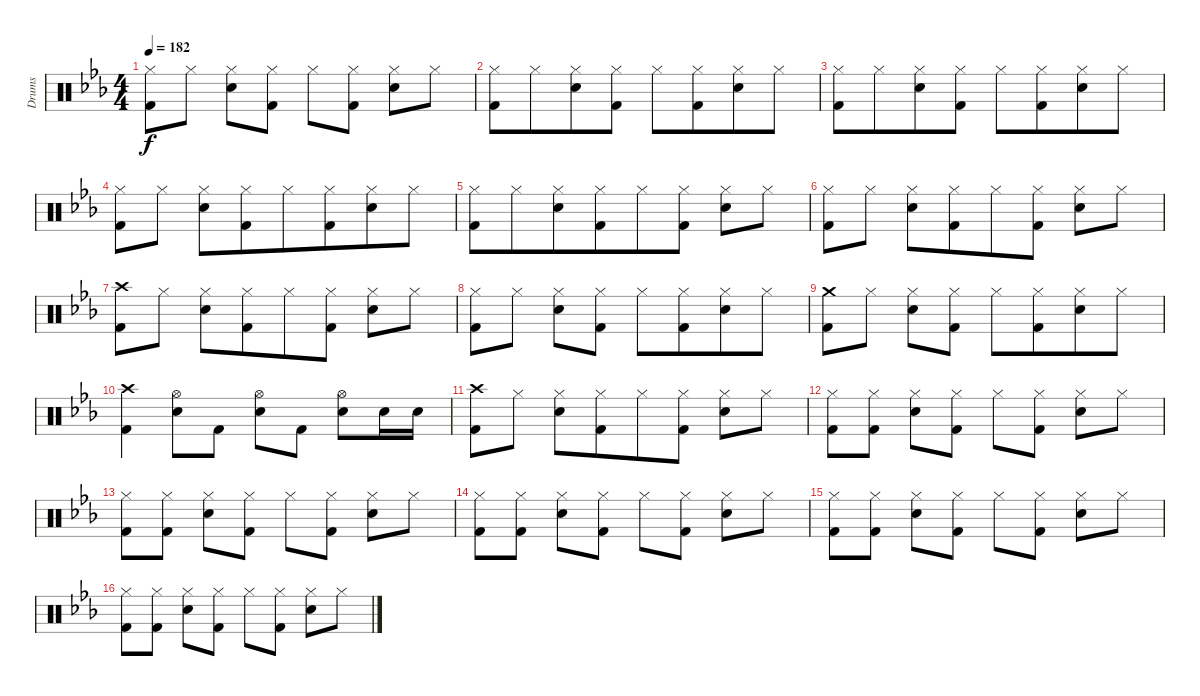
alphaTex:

\track ("Drums" "Drums") {instrument percussion}
\staff {score}
\articulation defaults
\ts (4 4)
\tempo 182
\clef neutral
\ks eb
("Hi-Hat (closed)" "Kick (hit) 2").8{dy f} "Hi-Hat (closed)".8 ("Hi-Hat (closed)" "Snare (hit) 2").8{beam merge} ("Hi-Hat (closed)" "Kick (hit) 2").8 "Hi-Hat (closed)".8 ("Hi-Hat (closed)" "Kick (hit) 2").8 ("Hi-Hat (closed)" "Snare (hit) 2").8 "Hi-Hat (closed)".8 |
("Hi-Hat (closed)" "Kick (hit) 2").8 "Hi-Hat (closed)".8{beam merge} ("Hi-Hat (closed)" "Snare (hit) 2").8 ("Hi-Hat (closed)" "Kick (hit) 2").8 "Hi-Hat (closed)".8{beam merge} ("Hi-Hat (closed)" "Kick (hit) 2").8{beam merge} ("Hi-Hat (closed)" "Snare (hit) 2").8 "Hi-Hat (closed)".8 |
("Hi-Hat (closed)" "Kick (hit) 2").8 "Hi-Hat (closed)".8{beam merge} ("Hi-Hat (closed)" "Snare (hit) 2").8 ("Hi-Hat (closed)" "Kick (hit) 2").8 "Hi-Hat (closed)".8 ("Hi-Hat (closed)" "Kick (hit) 2").8{beam merge} ("Hi-Hat (closed)" "Snare (hit) 2").8 "Hi-Hat (closed)".8 |
("Hi-Hat (closed)" "Kick (hit) 2").8 "Hi-Hat (closed)".8 ("Hi-Hat (closed)" "Snare (hit) 2").8 ("Hi-Hat (closed)" "Kick (hit) 2").8{beam merge} "Hi-Hat (closed)".8 ("Hi-Hat (closed)" "Kick (hit) 2").8{beam merge} ("Hi-Hat (closed)" "Snare (hit) 2").8 "Hi-Hat (closed)".8 |
("Hi-Hat (closed)" "Kick (hit) 2").8{beam merge} "Hi-Hat (closed)".8{beam merge} ("Hi-Hat (closed)" "Snare (hit) 2").8{beam merge} ("Hi-Hat (closed)" "Kick (hit) 2").8{beam merge} "Hi-Hat (closed)".8 ("Hi-Hat (closed)" "Kick (hit) 2").8 ("Hi-Hat (closed)" "Snare (hit) 2").8{beam merge} "Hi-Hat (closed)".8 |
("Hi-Hat (closed)" "Kick (hit) 2").8 "Hi-Hat (closed)".8 ("Hi-Hat (closed)" "Snare (hit) 2").8{beam merge} ("Hi-Hat (closed)" "Kick (hit) 2").8{beam merge} "Hi-Hat (closed)".8 ("Hi-Hat (closed)" "Kick (hit) 2").8 ("Hi-Hat (closed)" "Snare (hit) 2").8 "Hi-Hat (closed)".8 |
("Crash high (hit)" "Kick (hit) 2").8 "Hi-Hat (closed)".8 ("Hi-Hat (closed)" "Snare (hit) 2").8{beam merge} ("Hi-Hat (closed)" "Kick (hit) 2").8{beam merge} "Hi-Hat (closed)".8 ("Hi-Hat (closed)" "Kick (hit) 2").8 ("Hi-Hat (closed)" "Snare (hit) 2").8 "Hi-Hat (closed)".8 |
("Hi-Hat (closed)" "Kick (hit) 2").8 "Hi-Hat (closed)".8 ("Hi-Hat (closed)" "Snare (hit) 2").8{beam merge} ("Hi-Hat (closed)" "Kick (hit) 2").8 "Hi-Hat (closed)".8 ("Hi-Hat (closed)" "Kick (hit) 2").8{beam merge} ("Hi-Hat (closed)" "Snare (hit) 2").8 "Hi-Hat (closed)".8 |
("Crash medium (hit)" "Kick (hit) 2").8 "Hi-Hat (closed)".8 ("Hi-Hat (closed)" "Snare (hit) 2").8 ("Hi-Hat (closed)" "Kick (hit) 2").8 "Hi-Hat (closed)".8{beam merge} ("Hi-Hat (closed)" "Kick (hit) 2").8{beam merge} ("Hi-Hat (closed)" "Snare (hit) 2").8 "Hi-Hat (closed)".8 |
("Crash high (hit)" "Kick (hit) 2").4{beam merge} ("Hi-Hat (open)" "Snare (hit) 2").8{beam merge} "Kick (hit) 2".8 ("Hi-Hat (open)" "Snare (hit) 2").8 "Kick (hit) 2".8 ("Hi-Hat (open)" "Snare (hit) 2").8{beam merge} "Snare (hit) 2".16{beam merge} "Snare (hit) 2".16 |
("Crash high (hit)" "Kick (hit) 2").8{beam merge} "Hi-Hat (closed)".8 ("Hi-Hat (closed)" "Snare (hit) 2").8{beam merge} ("Hi-Hat (closed)" "Kick (hit) 2").8{beam merge} "Hi-Hat (closed)".8 ("Hi-Hat (closed)" "Kick (hit) 2").8 ("Hi-Hat (closed)" "Snare (hit) 2").8{beam merge} "Hi-Hat (closed)".8 |
("Hi-Hat (closed)" "Kick (hit) 2").8 ("Hi-Hat (closed)" "Kick (hit) 2").8 ("Hi-Hat (closed)" "Snare (hit) 2").8 ("Hi-Hat (closed)" "Kick (hit) 2").8 "Hi-Hat (closed)".8 ("Hi-Hat (closed)" "Kick (hit) 2").8 ("Hi-Hat (closed)" "Snare (hit) 2").8 "Hi-Hat (closed)".8 |
("Hi-Hat (closed)" "Kick (hit) 2").8 ("Hi-Hat (closed)" "Kick (hit) 2").8 ("Hi-Hat (closed)" "Snare (hit) 2").8 ("Hi-Hat (closed)" "Kick (hit) 2").8 "Hi-Hat (closed)".8 ("Hi-Hat (closed)" "Kick (hit) 2").8 ("Hi-Hat (closed)" "Snare (hit) 2").8 "Hi-Hat (closed)".8 |
("Hi-Hat (closed)" "Kick (hit) 2").8 ("Hi-Hat (closed)" "Kick (hit) 2").8 ("Hi-Hat (closed)" "Snare (hit) 2").8 ("Hi-Hat (closed)" "Kick (hit) 2").8 "Hi-Hat (closed)".8 ("Hi-Hat (closed)" "Kick (hit) 2").8 ("Hi-Hat (closed)" "Snare (hit) 2").8 "Hi-Hat (closed)".8 |
("Hi-Hat (closed)" "Kick (hit) 2").8 ("Hi-Hat (closed)" "Kick (hit) 2").8 ("Hi-Hat (closed)" "Snare (hit) 2").8 ("Hi-Hat (closed)" "Kick (hit) 2").8 "Hi-Hat (closed)".8 ("Hi-Hat (closed)" "Kick (hit) 2").8 ("Hi-Hat (closed)" "Snare (hit) 2").8 "Hi-Hat (closed)".8 |
("Hi-Hat (closed)" "Kick (hit) 2").8 ("Hi-Hat (closed)" "Kick (hit) 2").8 ("Hi-Hat (closed)" "Snare (hit) 2").8 ("Hi-Hat (closed)" "Kick (hit) 2").8 "Hi-Hat (closed)".8 ("Hi-Hat (closed)" "Kick (hit) 2").8 ("Hi-Hat (closed)" "Snare (hit) 2").8 "Hi-Hat (closed)".8
